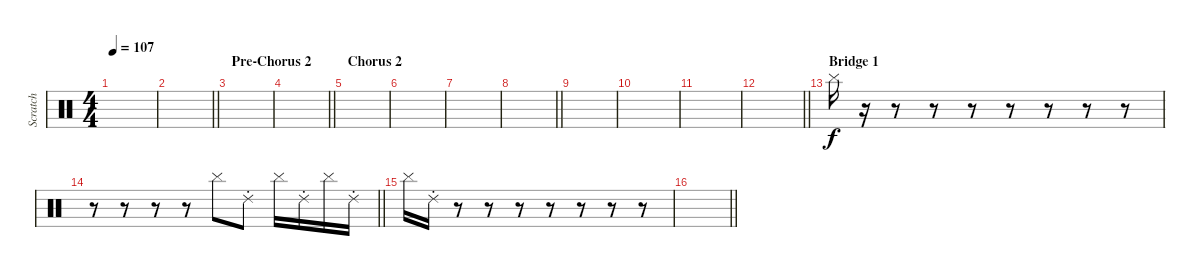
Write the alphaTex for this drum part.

\track ("Scratch" "Scratch") {instrument percussion}
\staff {score}
\articulation defaults
\ts (4 4)
\tempo 107
\clef neutral
\ks c
|
\barLineRight lightlight
|
\section ("" "Pre-Chorus 2")
|
\barLineRight lightlight
|
\section ("" "Chorus 2")
|
|
|
\barLineRight lightlight
|
|
|
|
\barLineRight lightlight
|
\section ("" "Bridge 1")
"Cymbal (hit)".16 r.16 r.8 r.8 r.8 r.8 r.8 r.8 r.8 |
\barLineRight lightlight
r.8 r.8 r.8 r.8 "Cymbal (hit)".8 "Ride (choke) 2".8 "Cymbal (hit)".16 "Ride (choke) 2".16 "Cymbal (hit)".16 "Ride (choke) 2".16 |
"Cymbal (hit)".16 "Ride (choke) 2".16 r.8 r.8 r.8 r.8 r.8 r.8 r.8 |
\barLineRight lightlight
